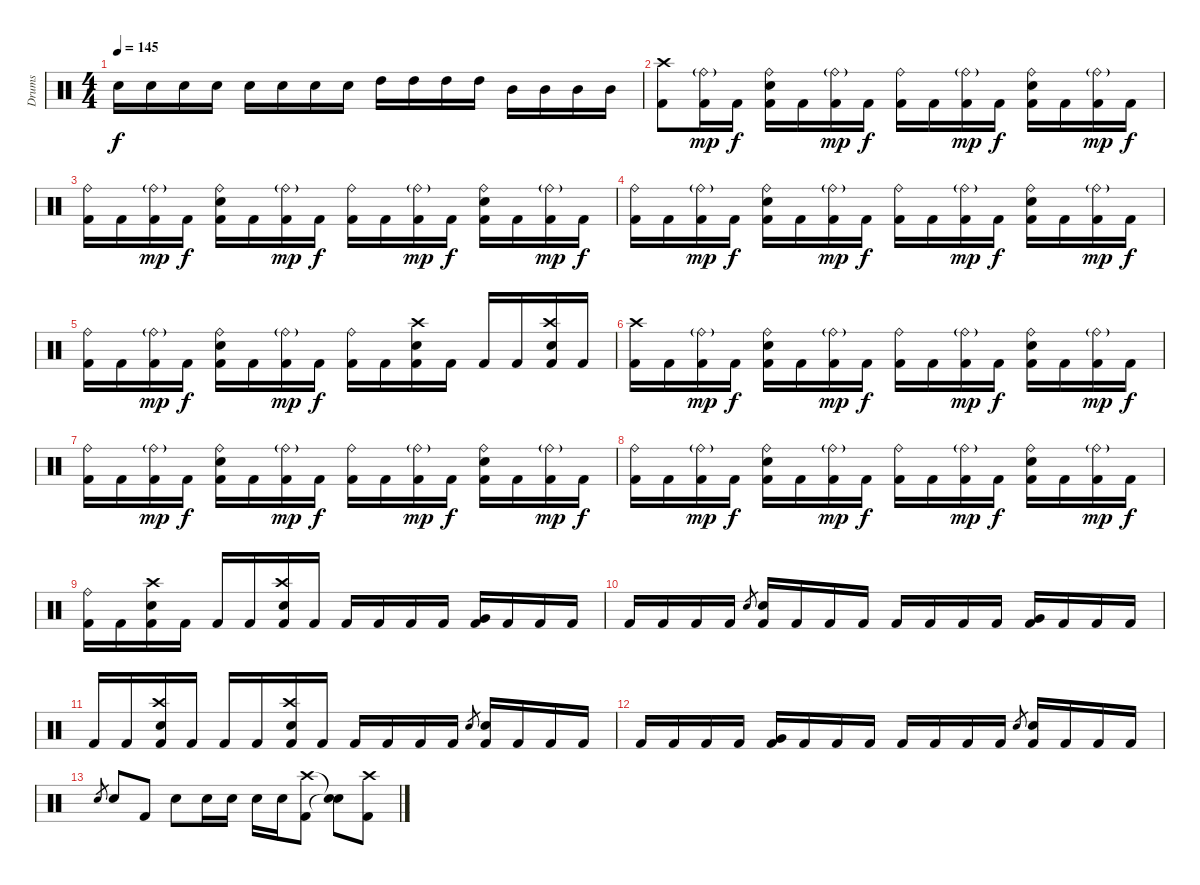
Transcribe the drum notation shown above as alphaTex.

\track ("Drums" "Drums") {instrument percussion}
\staff {score}
\articulation defaults
\ts (4 4)
\tempo 145
\clef neutral
\ks c "Electric Snare (hit)".16{dy f} "Electric Snare (hit)".16 "Electric Snare (hit)".16 "Electric Snare (hit)".16 "Electric Snare (hit)".16 "Electric Snare (hit)".16 "Electric Snare (hit)".16 "Electric Snare (hit)".16 "High Tom (hit)".16 "High Tom (hit)".16 "High Tom (hit)".16 "High Tom (hit)".16 "Mid Tom (hit)".16 "Mid Tom (hit)".16 "Mid Tom (hit)".16 "Mid Tom (hit)".16
|
("Crash high (hit)" "Kick (hit) 2").8 ("Ride (bell)"{g} "Kick (hit) 2").16{dy mp} "Kick (hit) 2".16{dy f} ("Ride (bell)" "Electric Snare (hit)" "Kick (hit) 2").16 "Kick (hit) 2".16 ("Ride (bell)"{g} "Kick (hit) 2").16{dy mp} "Kick (hit) 2".16{dy f} ("Ride (bell)" "Kick (hit) 2").16 "Kick (hit) 2".16 ("Ride (bell)"{g} "Kick (hit) 2").16{dy mp} "Kick (hit) 2".16{dy f} ("Ride (bell)" "Electric Snare (hit)" "Kick (hit) 2").16 "Kick (hit) 2".16 ("Ride (bell)"{g} "Kick (hit) 2").16{dy mp} "Kick (hit) 2".16{dy f} |
("Ride (bell)" "Kick (hit) 2").16 "Kick (hit) 2".16 ("Ride (bell)"{g} "Kick (hit) 2").16{dy mp} "Kick (hit) 2".16{dy f} ("Ride (bell)" "Electric Snare (hit)" "Kick (hit) 2").16 "Kick (hit) 2".16 ("Ride (bell)"{g} "Kick (hit) 2").16{dy mp} "Kick (hit) 2".16{dy f} ("Ride (bell)" "Kick (hit) 2").16 "Kick (hit) 2".16 ("Ride (bell)"{g} "Kick (hit) 2").16{dy mp} "Kick (hit) 2".16{dy f} ("Ride (bell)" "Electric Snare (hit)" "Kick (hit) 2").16 "Kick (hit) 2".16 ("Ride (bell)"{g} "Kick (hit) 2").16{dy mp} "Kick (hit) 2".16{dy f} |
("Ride (bell)" "Kick (hit) 2").16 "Kick (hit) 2".16 ("Ride (bell)"{g} "Kick (hit) 2").16{dy mp} "Kick (hit) 2".16{dy f} ("Ride (bell)" "Electric Snare (hit)" "Kick (hit) 2").16 "Kick (hit) 2".16 ("Ride (bell)"{g} "Kick (hit) 2").16{dy mp} "Kick (hit) 2".16{dy f} ("Ride (bell)" "Kick (hit) 2").16 "Kick (hit) 2".16 ("Ride (bell)"{g} "Kick (hit) 2").16{dy mp} "Kick (hit) 2".16{dy f} ("Ride (bell)" "Electric Snare (hit)" "Kick (hit) 2").16 "Kick (hit) 2".16 ("Ride (bell)"{g} "Kick (hit) 2").16{dy mp} "Kick (hit) 2".16{dy f} |
("Ride (bell)" "Kick (hit) 2").16 "Kick (hit) 2".16 ("Ride (bell)"{g} "Kick (hit) 2").16{dy mp} "Kick (hit) 2".16{dy f} ("Ride (bell)" "Electric Snare (hit)" "Kick (hit) 2").16 "Kick (hit) 2".16 ("Ride (bell)"{g} "Kick (hit) 2").16{dy mp} "Kick (hit) 2".16{dy f} ("Ride (bell)" "Kick (hit) 2").16 "Kick (hit) 2".16 ("Crash high (hit)" "Electric Snare (hit)" "Kick (hit) 2").16 "Kick (hit) 2".16 "Kick (hit) 2".16 "Kick (hit) 2".16 ("Crash high (hit)" "Electric Snare (hit)" "Kick (hit) 2").16 "Kick (hit) 2".16 |
("Crash high (hit)" "Kick (hit) 2").16 "Kick (hit) 2".16 ("Ride (bell)"{g} "Kick (hit) 2").16{dy mp} "Kick (hit) 2".16{dy f} ("Ride (bell)" "Electric Snare (hit)" "Kick (hit) 2").16 "Kick (hit) 2".16 ("Ride (bell)"{g} "Kick (hit) 2").16{dy mp} "Kick (hit) 2".16{dy f} ("Ride (bell)" "Kick (hit) 2").16 "Kick (hit) 2".16 ("Ride (bell)"{g} "Kick (hit) 2").16{dy mp} "Kick (hit) 2".16{dy f} ("Ride (bell)" "Electric Snare (hit)" "Kick (hit) 2").16 "Kick (hit) 2".16 ("Ride (bell)"{g} "Kick (hit) 2").16{dy mp} "Kick (hit) 2".16{dy f} |
("Ride (bell)" "Kick (hit) 2").16 "Kick (hit) 2".16 ("Ride (bell)"{g} "Kick (hit) 2").16{dy mp} "Kick (hit) 2".16{dy f} ("Ride (bell)" "Electric Snare (hit)" "Kick (hit) 2").16 "Kick (hit) 2".16 ("Ride (bell)"{g} "Kick (hit) 2").16{dy mp} "Kick (hit) 2".16{dy f} ("Ride (bell)" "Kick (hit) 2").16 "Kick (hit) 2".16 ("Ride (bell)"{g} "Kick (hit) 2").16{dy mp} "Kick (hit) 2".16{dy f} ("Ride (bell)" "Electric Snare (hit)" "Kick (hit) 2").16 "Kick (hit) 2".16 ("Ride (bell)"{g} "Kick (hit) 2").16{dy mp} "Kick (hit) 2".16{dy f} |
("Ride (bell)" "Kick (hit) 2").16 "Kick (hit) 2".16 ("Ride (bell)"{g} "Kick (hit) 2").16{dy mp} "Kick (hit) 2".16{dy f} ("Ride (bell)" "Electric Snare (hit)" "Kick (hit) 2").16 "Kick (hit) 2".16 ("Ride (bell)"{g} "Kick (hit) 2").16{dy mp} "Kick (hit) 2".16{dy f} ("Ride (bell)" "Kick (hit) 2").16 "Kick (hit) 2".16 ("Ride (bell)"{g} "Kick (hit) 2").16{dy mp} "Kick (hit) 2".16{dy f} ("Ride (bell)" "Electric Snare (hit)" "Kick (hit) 2").16 "Kick (hit) 2".16 ("Ride (bell)"{g} "Kick (hit) 2").16{dy mp} "Kick (hit) 2".16{dy f} |
("Ride (bell)" "Kick (hit) 2").16 "Kick (hit) 2".16 ("Crash high (hit)" "Electric Snare (hit)" "Kick (hit) 2").16 "Kick (hit) 2".16 "Kick (hit) 2".16 "Kick (hit) 2".16 ("Crash high (hit)" "Electric Snare (hit)" "Kick (hit) 2").16 "Kick (hit) 2".16 "Kick (hit) 2".16 "Kick (hit) 2".16 "Kick (hit) 2".16 "Kick (hit) 2".16 ("Very Low Tom (hit)" "Kick (hit) 2").16 "Kick (hit) 2".16 "Kick (hit) 2".16 "Kick (hit) 2".16 |
"Kick (hit) 2".16 "Kick (hit) 2".16 "Kick (hit) 2".16 "Kick (hit) 2".16 "Electric Snare (hit)".8{gr} ("Electric Snare (hit)" "Kick (hit) 2").16 "Kick (hit) 2".16 "Kick (hit) 2".16 "Kick (hit) 2".16 "Kick (hit) 2".16 "Kick (hit) 2".16 "Kick (hit) 2".16 "Kick (hit) 2".16 ("Very Low Tom (hit)" "Kick (hit) 2").16 "Kick (hit) 2".16 "Kick (hit) 2".16 "Kick (hit) 2".16 |
"Kick (hit) 2".16 "Kick (hit) 2".16 ("Crash high (hit)" "Electric Snare (hit)" "Kick (hit) 2").16 "Kick (hit) 2".16 "Kick (hit) 2".16 "Kick (hit) 2".16 ("Crash high (hit)" "Electric Snare (hit)" "Kick (hit) 2").16 "Kick (hit) 2".16 "Kick (hit) 2".16 "Kick (hit) 2".16 "Kick (hit) 2".16 "Kick (hit) 2".16 "Electric Snare (hit)".8{gr} ("Electric Snare (hit)" "Kick (hit) 2").16 "Kick (hit) 2".16 "Kick (hit) 2".16 "Kick (hit) 2".16 |
"Kick (hit) 2".16 "Kick (hit) 2".16 "Kick (hit) 2".16 "Kick (hit) 2".16 ("Very Low Tom (hit)" "Kick (hit) 2").16 "Kick (hit) 2".16 "Kick (hit) 2".16 "Kick (hit) 2".16 "Kick (hit) 2".16 "Kick (hit) 2".16 "Kick (hit) 2".16 "Kick (hit) 2".16 "Electric Snare (hit)".8{gr} ("Electric Snare (hit)" "Kick (hit) 2").16 "Kick (hit) 2".16 "Kick (hit) 2".16 "Kick (hit) 2".16 |
"Electric Snare (hit)".8{gr} "Electric Snare (hit)".8 "Kick (hit) 2".8 "Electric Snare (hit)".8 "Electric Snare (hit)".16 "Electric Snare (hit)".16 "Electric Snare (hit)".16 "Electric Snare (hit)".16 ("Crash high (hit)" "Kick (hit) 2").8 ("Snare (hit)"{t} "Snare (hit)"{t}).8 ("Crash high (hit)" "Kick (hit) 2").8
